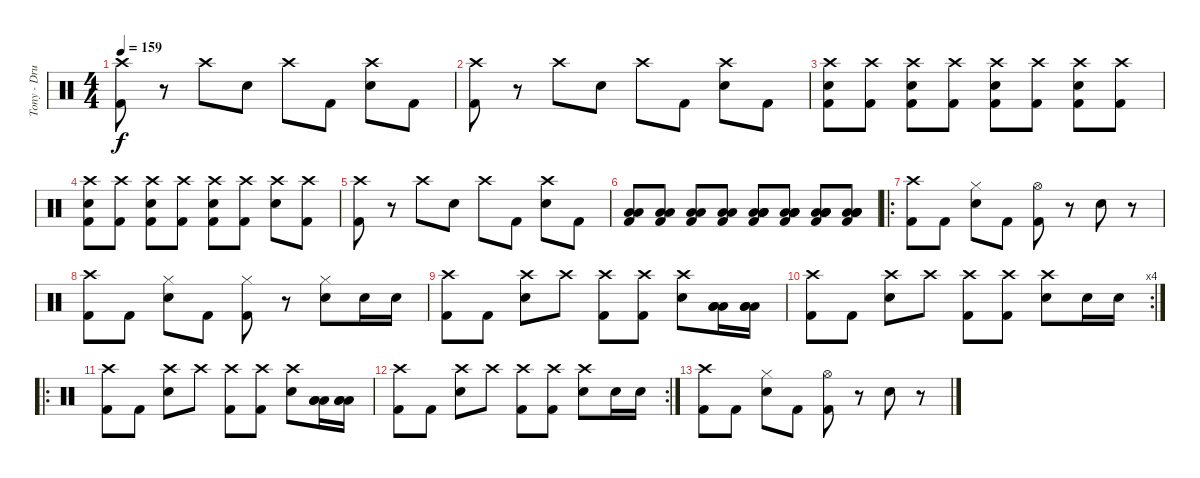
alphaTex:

\track ("Tony - Drums" "Tony - Dru") {instrument percussion}
\staff {score}
\articulation defaults
\ts (4 4)
\tempo 159
\clef neutral
\ks c
("Kick (hit) 2" "Crash high (hit)").8{dy f} r.8 "Crash high (hit)".8 "Snare (hit) 2".8 "Crash high (hit)".8 "Kick (hit) 2".8 ("Crash high (hit)" "Snare (hit) 2").8 "Kick (hit) 2".8 |
("Kick (hit) 2" "Crash high (hit)").8 r.8 "Crash high (hit)".8 "Snare (hit) 2".8 "Crash high (hit)".8 "Kick (hit) 2".8 ("Crash high (hit)" "Snare (hit) 2").8 "Kick (hit) 2".8 |
("Kick (hit) 2" "Crash high (hit)" "Snare (hit) 2").8 ("Kick (hit) 2" "Crash high (hit)").8 ("Kick (hit) 2" "Crash high (hit)" "Snare (hit) 2").8 ("Kick (hit) 2" "Crash high (hit)").8 ("Kick (hit) 2" "Crash high (hit)" "Snare (hit) 2").8 ("Kick (hit) 2" "Crash high (hit)").8 ("Kick (hit) 2" "Crash high (hit)" "Snare (hit) 2").8 ("Kick (hit) 2" "Crash high (hit)").8 |
("Kick (hit) 2" "Crash high (hit)" "Snare (hit) 2").8 ("Kick (hit) 2" "Crash high (hit)").8 ("Kick (hit) 2" "Crash high (hit)" "Snare (hit) 2").8 ("Kick (hit) 2" "Crash high (hit)").8 ("Kick (hit) 2" "Crash high (hit)" "Snare (hit) 2").8 ("Kick (hit) 2" "Crash high (hit)").8 ("Crash high (hit)" "Snare (hit) 2").8 ("Kick (hit) 2" "Crash high (hit)").8 |
("Kick (hit) 2" "Crash high (hit)").8 r.8 "Crash high (hit)".8 "Snare (hit) 2".8 "Crash high (hit)".8 "Kick (hit) 2".8 ("Crash high (hit)" "Snare (hit) 2").8 "Kick (hit) 2".8 |
("Kick (hit) 2" "Low Floor Tom (hit)" "Low Tom (hit)").8 ("Kick (hit) 2" "Low Floor Tom (hit)" "Low Tom (hit)").8 ("Kick (hit) 2" "Low Floor Tom (hit)" "Low Tom (hit)").8 ("Kick (hit) 2" "Low Floor Tom (hit)" "Low Tom (hit)").8 ("Kick (hit) 2" "Low Floor Tom (hit)" "Low Tom (hit)" "Low Floor Tom (hit)" "Low Tom (hit)").8 ("Kick (hit) 2" "Low Floor Tom (hit)" "Low Tom (hit)" "Low Floor Tom (hit)" "Low Tom (hit)").8 ("Kick (hit) 2" "Low Floor Tom (hit)" "Low Tom (hit)" "Low Floor Tom (hit)" "Low Tom (hit)").8 ("Kick (hit) 2" "Low Floor Tom (hit)" "Low Tom (hit)" "Low Floor Tom (hit)" "Low Tom (hit)").8 |
\ro
("Kick (hit) 2" "Crash high (hit)").8 "Kick (hit) 2".8 ("Snare (hit) 2" "Hi-Hat (closed)").8 "Kick (hit) 2".8 ("Kick (hit) 2" "Hi-Hat (open)").8 r.8 "Snare (hit) 2".8 r.8 |
("Kick (hit) 2" "Crash high (hit)").8 "Kick (hit) 2".8 ("Snare (hit) 2" "Hi-Hat (closed)").8 "Kick (hit) 2".8 ("Kick (hit) 2" "Hi-Hat (closed)").8 r.8 ("Snare (hit) 2" "Hi-Hat (closed)").8 "Snare (hit) 2".16 "Snare (hit) 2".16 |
("Kick (hit) 2" "Crash high (hit)").8 "Kick (hit) 2".8 ("Crash high (hit)" "Snare (hit) 2").8 "Crash high (hit)".8 ("Kick (hit) 2" "Crash high (hit)").8 ("Kick (hit) 2" "Crash high (hit)").8 ("Crash high (hit)" "Snare (hit) 2").8 ("Low Floor Tom (hit)" "Low Floor Tom (hit)" "Low Floor Tom (hit)").16 ("Low Floor Tom (hit)" "Low Floor Tom (hit)" "Low Floor Tom (hit)").16 |
\rc 4
("Kick (hit) 2" "Crash high (hit)").8 "Kick (hit) 2".8 ("Crash high (hit)" "Snare (hit) 2").8 "Crash high (hit)".8 ("Kick (hit) 2" "Crash high (hit)").8 ("Kick (hit) 2" "Crash high (hit)").8 ("Crash high (hit)" "Snare (hit) 2").8 "Snare (hit) 2".16 "Snare (hit) 2".16 |
\ro
("Kick (hit) 2" "Crash high (hit)").8 "Kick (hit) 2".8 ("Crash high (hit)" "Snare (hit) 2").8 "Crash high (hit)".8 ("Kick (hit) 2" "Crash high (hit)").8 ("Kick (hit) 2" "Crash high (hit)").8 ("Crash high (hit)" "Snare (hit) 2").8 ("Low Floor Tom (hit)" "Low Floor Tom (hit)" "Low Floor Tom (hit)").16 ("Low Floor Tom (hit)" "Low Floor Tom (hit)" "Low Floor Tom (hit)").16 |
\rc 2
("Kick (hit) 2" "Crash high (hit)").8 "Kick (hit) 2".8 ("Crash high (hit)" "Snare (hit) 2").8 "Crash high (hit)".8 ("Kick (hit) 2" "Crash high (hit)").8 ("Kick (hit) 2" "Crash high (hit)").8 ("Crash high (hit)" "Snare (hit) 2").8 "Snare (hit) 2".16 "Snare (hit) 2".16 |
("Kick (hit) 2" "Crash high (hit)").8 "Kick (hit) 2".8 ("Snare (hit) 2" "Hi-Hat (closed)").8 "Kick (hit) 2".8 ("Kick (hit) 2" "Hi-Hat (open)").8 r.8 "Snare (hit) 2".8 r.8
